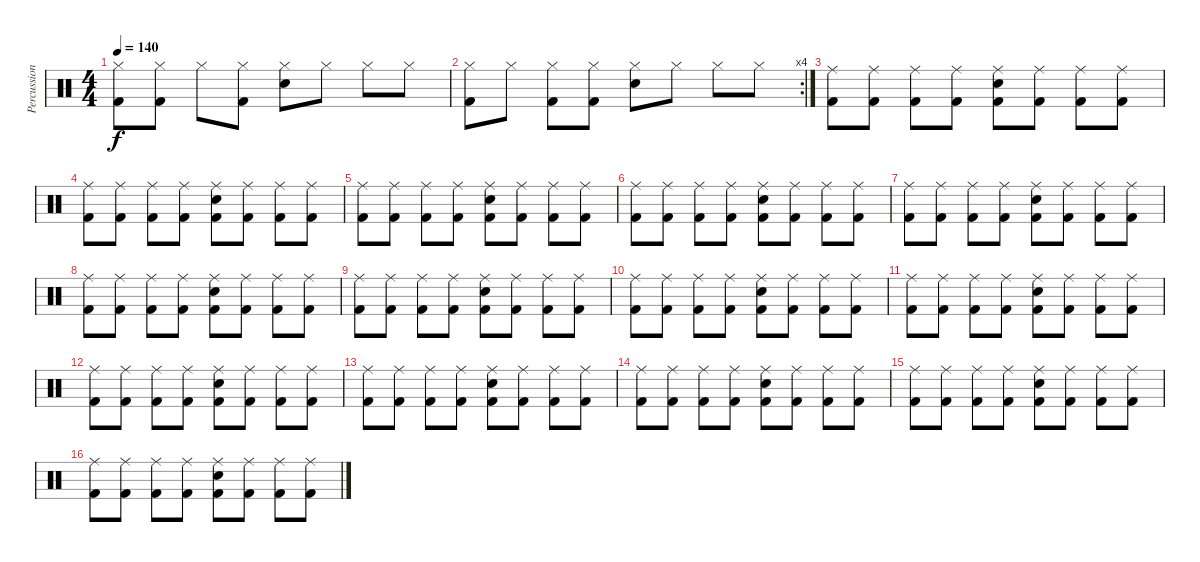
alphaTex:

\track ("Percussion" "Percussion") {instrument percussion}
\staff {score}
\articulation defaults
\ts (4 4)
\tempo 140
\clef neutral
\ks c
("Hi-Hat (closed)" "Kick (hit) 2").8{dy f} ("Hi-Hat (closed)" "Kick (hit) 2").8 "Hi-Hat (closed)".8 ("Hi-Hat (closed)" "Kick (hit) 2").8 ("Hi-Hat (closed)" "Snare (hit) 2").8 "Hi-Hat (closed)".8 "Hi-Hat (closed)".8 "Hi-Hat (closed)".8 |
\rc 4
("Hi-Hat (closed)" "Kick (hit) 2").8 "Hi-Hat (closed)".8 ("Hi-Hat (closed)" "Kick (hit) 2").8 ("Hi-Hat (closed)" "Kick (hit) 2").8 ("Hi-Hat (closed)" "Snare (hit) 2").8 "Hi-Hat (closed)".8 "Hi-Hat (closed)".8 "Hi-Hat (closed)".8 |
("Ride (middle)" "Kick (hit) 2").8 ("Ride (middle)" "Kick (hit) 2").8 ("Ride (middle)" "Kick (hit) 2").8 ("Ride (middle)" "Kick (hit) 2").8 ("Ride (middle)" "Snare (hit) 2" "Kick (hit) 2").8 ("Ride (middle)" "Kick (hit) 2").8 ("Ride (middle)" "Kick (hit) 2").8 ("Ride (middle)" "Kick (hit) 2").8 |
("Ride (middle)" "Kick (hit) 2").8 ("Ride (middle)" "Kick (hit) 2").8 ("Ride (middle)" "Kick (hit) 2").8 ("Ride (middle)" "Kick (hit) 2").8 ("Ride (middle)" "Snare (hit) 2" "Kick (hit) 2").8 ("Ride (middle)" "Kick (hit) 2").8 ("Ride (middle)" "Kick (hit) 2").8 ("Ride (middle)" "Kick (hit) 2").8 |
("Ride (middle)" "Kick (hit) 2").8 ("Ride (middle)" "Kick (hit) 2").8 ("Ride (middle)" "Kick (hit) 2").8 ("Ride (middle)" "Kick (hit) 2").8 ("Ride (middle)" "Snare (hit) 2" "Kick (hit) 2").8 ("Ride (middle)" "Kick (hit) 2").8 ("Ride (middle)" "Kick (hit) 2").8 ("Ride (middle)" "Kick (hit) 2").8 |
("Ride (middle)" "Kick (hit) 2").8 ("Ride (middle)" "Kick (hit) 2").8 ("Ride (middle)" "Kick (hit) 2").8 ("Ride (middle)" "Kick (hit) 2").8 ("Ride (middle)" "Snare (hit) 2" "Kick (hit) 2").8 ("Ride (middle)" "Kick (hit) 2").8 ("Ride (middle)" "Kick (hit) 2").8 ("Ride (middle)" "Kick (hit) 2").8 |
("Ride (middle)" "Kick (hit) 2").8 ("Ride (middle)" "Kick (hit) 2").8 ("Ride (middle)" "Kick (hit) 2").8 ("Ride (middle)" "Kick (hit) 2").8 ("Ride (middle)" "Snare (hit) 2" "Kick (hit) 2").8 ("Ride (middle)" "Kick (hit) 2").8 ("Ride (middle)" "Kick (hit) 2").8 ("Ride (middle)" "Kick (hit) 2").8 |
("Ride (middle)" "Kick (hit) 2").8 ("Ride (middle)" "Kick (hit) 2").8 ("Ride (middle)" "Kick (hit) 2").8 ("Ride (middle)" "Kick (hit) 2").8 ("Ride (middle)" "Snare (hit) 2" "Kick (hit) 2").8 ("Ride (middle)" "Kick (hit) 2").8 ("Ride (middle)" "Kick (hit) 2").8 ("Ride (middle)" "Kick (hit) 2").8 |
("Ride (middle)" "Kick (hit) 2").8 ("Ride (middle)" "Kick (hit) 2").8 ("Ride (middle)" "Kick (hit) 2").8 ("Ride (middle)" "Kick (hit) 2").8 ("Ride (middle)" "Snare (hit) 2" "Kick (hit) 2").8 ("Ride (middle)" "Kick (hit) 2").8 ("Ride (middle)" "Kick (hit) 2").8 ("Ride (middle)" "Kick (hit) 2").8 |
("Ride (middle)" "Kick (hit) 2").8 ("Ride (middle)" "Kick (hit) 2").8 ("Ride (middle)" "Kick (hit) 2").8 ("Ride (middle)" "Kick (hit) 2").8 ("Ride (middle)" "Snare (hit) 2" "Kick (hit) 2").8 ("Ride (middle)" "Kick (hit) 2").8 ("Ride (middle)" "Kick (hit) 2").8 ("Ride (middle)" "Kick (hit) 2").8 |
("Ride (middle)" "Kick (hit) 2").8 ("Ride (middle)" "Kick (hit) 2").8 ("Ride (middle)" "Kick (hit) 2").8 ("Ride (middle)" "Kick (hit) 2").8 ("Ride (middle)" "Snare (hit) 2" "Kick (hit) 2").8 ("Ride (middle)" "Kick (hit) 2").8 ("Ride (middle)" "Kick (hit) 2").8 ("Ride (middle)" "Kick (hit) 2").8 |
("Ride (middle)" "Kick (hit) 2").8 ("Ride (middle)" "Kick (hit) 2").8 ("Ride (middle)" "Kick (hit) 2").8 ("Ride (middle)" "Kick (hit) 2").8 ("Ride (middle)" "Snare (hit) 2" "Kick (hit) 2").8 ("Ride (middle)" "Kick (hit) 2").8 ("Ride (middle)" "Kick (hit) 2").8 ("Ride (middle)" "Kick (hit) 2").8 |
("Ride (middle)" "Kick (hit) 2").8 ("Ride (middle)" "Kick (hit) 2").8 ("Ride (middle)" "Kick (hit) 2").8 ("Ride (middle)" "Kick (hit) 2").8 ("Ride (middle)" "Snare (hit) 2" "Kick (hit) 2").8 ("Ride (middle)" "Kick (hit) 2").8 ("Ride (middle)" "Kick (hit) 2").8 ("Ride (middle)" "Kick (hit) 2").8 |
("Ride (middle)" "Kick (hit) 2").8 ("Ride (middle)" "Kick (hit) 2").8 ("Ride (middle)" "Kick (hit) 2").8 ("Ride (middle)" "Kick (hit) 2").8 ("Ride (middle)" "Snare (hit) 2" "Kick (hit) 2").8 ("Ride (middle)" "Kick (hit) 2").8 ("Ride (middle)" "Kick (hit) 2").8 ("Ride (middle)" "Kick (hit) 2").8 |
("Ride (middle)" "Kick (hit) 2").8 ("Ride (middle)" "Kick (hit) 2").8 ("Ride (middle)" "Kick (hit) 2").8 ("Ride (middle)" "Kick (hit) 2").8 ("Ride (middle)" "Snare (hit) 2" "Kick (hit) 2").8 ("Ride (middle)" "Kick (hit) 2").8 ("Ride (middle)" "Kick (hit) 2").8 ("Ride (middle)" "Kick (hit) 2").8 |
("Ride (middle)" "Kick (hit) 2").8 ("Ride (middle)" "Kick (hit) 2").8 ("Ride (middle)" "Kick (hit) 2").8 ("Ride (middle)" "Kick (hit) 2").8 ("Ride (middle)" "Snare (hit) 2" "Kick (hit) 2").8 ("Ride (middle)" "Kick (hit) 2").8 ("Ride (middle)" "Kick (hit) 2").8 ("Ride (middle)" "Kick (hit) 2").8
